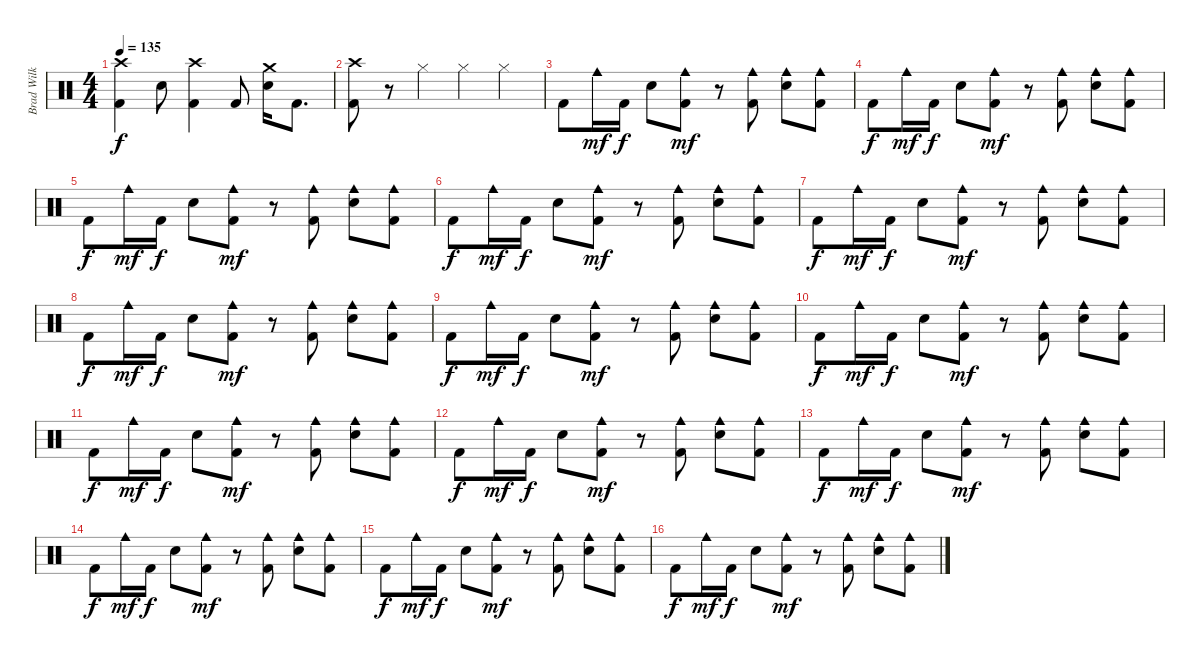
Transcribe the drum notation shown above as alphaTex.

\track ("Brad Wilk" "Brad Wilk") {instrument percussion}
\staff {score}
\articulation defaults
\ts (4 4)
\tempo 135
\clef neutral
\ks c
("Crash high (hit)" "Kick (hit) 2").4{dy f} "Electric Snare (hit)".8 ("Crash high (hit)" "Kick (hit) 2").4 "Kick (hit) 2".8 ("Crash medium (hit)" "Electric Snare (hit)").16 "Kick (hit) 2".8{d} |
("Crash high (hit)" "Kick (hit) 2").8 r.8 "Hi-Hat (closed)".4 "Hi-Hat (closed)".4 "Hi-Hat (closed)".4 |
"Kick (hit) 2".8 "Cowbell medium (hit)".16{dy mf} "Kick (hit) 2".16{dy f} "Electric Snare (hit)".8 ("Cowbell medium (hit)" "Kick (hit) 2").8{dy mf} r.8 ("Cowbell medium (hit)" "Kick (hit) 2").8 ("Cowbell medium (hit)" "Electric Snare (hit)").8 ("Cowbell medium (hit)" "Kick (hit) 2").8 |
"Kick (hit) 2".8{dy f} "Cowbell medium (hit)".16{dy mf} "Kick (hit) 2".16{dy f} "Electric Snare (hit)".8 ("Cowbell medium (hit)" "Kick (hit) 2").8{dy mf} r.8 ("Cowbell medium (hit)" "Kick (hit) 2").8 ("Cowbell medium (hit)" "Electric Snare (hit)").8 ("Cowbell medium (hit)" "Kick (hit) 2").8 |
"Kick (hit) 2".8{dy f} "Cowbell medium (hit)".16{dy mf} "Kick (hit) 2".16{dy f} "Electric Snare (hit)".8 ("Cowbell medium (hit)" "Kick (hit) 2").8{dy mf} r.8 ("Cowbell medium (hit)" "Kick (hit) 2").8 ("Cowbell medium (hit)" "Electric Snare (hit)").8 ("Cowbell medium (hit)" "Kick (hit) 2").8 |
"Kick (hit) 2".8{dy f} "Cowbell medium (hit)".16{dy mf} "Kick (hit) 2".16{dy f} "Electric Snare (hit)".8 ("Cowbell medium (hit)" "Kick (hit) 2").8{dy mf} r.8 ("Cowbell medium (hit)" "Kick (hit) 2").8 ("Cowbell medium (hit)" "Electric Snare (hit)").8 ("Cowbell medium (hit)" "Kick (hit) 2").8 |
"Kick (hit) 2".8{dy f} "Cowbell medium (hit)".16{dy mf} "Kick (hit) 2".16{dy f} "Electric Snare (hit)".8 ("Cowbell medium (hit)" "Kick (hit) 2").8{dy mf} r.8 ("Cowbell medium (hit)" "Kick (hit) 2").8 ("Cowbell medium (hit)" "Electric Snare (hit)").8 ("Cowbell medium (hit)" "Kick (hit) 2").8 |
"Kick (hit) 2".8{dy f} "Cowbell medium (hit)".16{dy mf} "Kick (hit) 2".16{dy f} "Electric Snare (hit)".8 ("Cowbell medium (hit)" "Kick (hit) 2").8{dy mf} r.8 ("Cowbell medium (hit)" "Kick (hit) 2").8 ("Cowbell medium (hit)" "Electric Snare (hit)").8 ("Cowbell medium (hit)" "Kick (hit) 2").8 |
"Kick (hit) 2".8{dy f} "Cowbell medium (hit)".16{dy mf} "Kick (hit) 2".16{dy f} "Electric Snare (hit)".8 ("Cowbell medium (hit)" "Kick (hit) 2").8{dy mf} r.8 ("Cowbell medium (hit)" "Kick (hit) 2").8 ("Cowbell medium (hit)" "Electric Snare (hit)").8 ("Cowbell medium (hit)" "Kick (hit) 2").8 |
"Kick (hit) 2".8{dy f} "Cowbell medium (hit)".16{dy mf} "Kick (hit) 2".16{dy f} "Electric Snare (hit)".8 ("Cowbell medium (hit)" "Kick (hit) 2").8{dy mf} r.8 ("Cowbell medium (hit)" "Kick (hit) 2").8 ("Cowbell medium (hit)" "Electric Snare (hit)").8 ("Cowbell medium (hit)" "Kick (hit) 2").8 |
"Kick (hit) 2".8{dy f} "Cowbell medium (hit)".16{dy mf} "Kick (hit) 2".16{dy f} "Electric Snare (hit)".8 ("Cowbell medium (hit)" "Kick (hit) 2").8{dy mf} r.8 ("Cowbell medium (hit)" "Kick (hit) 2").8 ("Cowbell medium (hit)" "Electric Snare (hit)").8 ("Cowbell medium (hit)" "Kick (hit) 2").8 |
"Kick (hit) 2".8{dy f} "Cowbell medium (hit)".16{dy mf} "Kick (hit) 2".16{dy f} "Electric Snare (hit)".8 ("Cowbell medium (hit)" "Kick (hit) 2").8{dy mf} r.8 ("Cowbell medium (hit)" "Kick (hit) 2").8 ("Cowbell medium (hit)" "Electric Snare (hit)").8 ("Cowbell medium (hit)" "Kick (hit) 2").8 |
"Kick (hit) 2".8{dy f} "Cowbell medium (hit)".16{dy mf} "Kick (hit) 2".16{dy f} "Electric Snare (hit)".8 ("Cowbell medium (hit)" "Kick (hit) 2").8{dy mf} r.8 ("Cowbell medium (hit)" "Kick (hit) 2").8 ("Cowbell medium (hit)" "Electric Snare (hit)").8 ("Cowbell medium (hit)" "Kick (hit) 2").8 |
"Kick (hit) 2".8{dy f} "Cowbell medium (hit)".16{dy mf} "Kick (hit) 2".16{dy f} "Electric Snare (hit)".8 ("Cowbell medium (hit)" "Kick (hit) 2").8{dy mf} r.8 ("Cowbell medium (hit)" "Kick (hit) 2").8 ("Cowbell medium (hit)" "Electric Snare (hit)").8 ("Cowbell medium (hit)" "Kick (hit) 2").8 |
"Kick (hit) 2".8{dy f} "Cowbell medium (hit)".16{dy mf} "Kick (hit) 2".16{dy f} "Electric Snare (hit)".8 ("Cowbell medium (hit)" "Kick (hit) 2").8{dy mf} r.8 ("Cowbell medium (hit)" "Kick (hit) 2").8 ("Cowbell medium (hit)" "Electric Snare (hit)").8 ("Cowbell medium (hit)" "Kick (hit) 2").8 |
"Kick (hit) 2".8{dy f} "Cowbell medium (hit)".16{dy mf} "Kick (hit) 2".16{dy f} "Electric Snare (hit)".8 ("Cowbell medium (hit)" "Kick (hit) 2").8{dy mf} r.8 ("Cowbell medium (hit)" "Kick (hit) 2").8 ("Cowbell medium (hit)" "Electric Snare (hit)").8 ("Cowbell medium (hit)" "Kick (hit) 2").8
